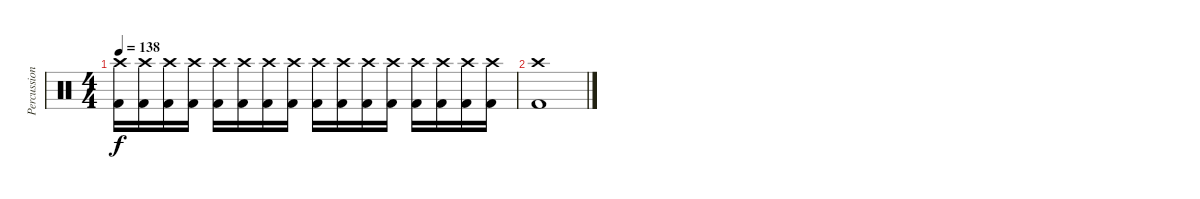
\track ("Percussion" "Percussion") {instrument percussion}
\staff {score}
\articulation defaults
\ts (4 4)
\tempo 138
\clef neutral
\ks c
("Crash high (hit)" "Kick (hit) 2").16{dy f} ("Crash high (hit)" "Kick (hit) 2").16 ("Crash high (hit)" "Kick (hit) 2").16 ("Crash high (hit)" "Kick (hit) 2").16 ("Crash high (hit)" "Kick (hit) 2").16 ("Crash high (hit)" "Kick (hit) 2").16 ("Crash high (hit)" "Kick (hit) 2").16 ("Crash high (hit)" "Kick (hit) 2").16 ("Crash high (hit)" "Kick (hit) 2").16 ("Crash high (hit)" "Kick (hit) 2").16 ("Crash high (hit)" "Kick (hit) 2").16 ("Crash high (hit)" "Kick (hit) 2").16 ("Crash high (hit)" "Kick (hit) 2").16 ("Crash high (hit)" "Kick (hit) 2").16 ("Crash high (hit)" "Kick (hit) 2").16 ("Crash high (hit)" "Kick (hit) 2").16 |
("Crash high (hit)" "Kick (hit) 2").1
